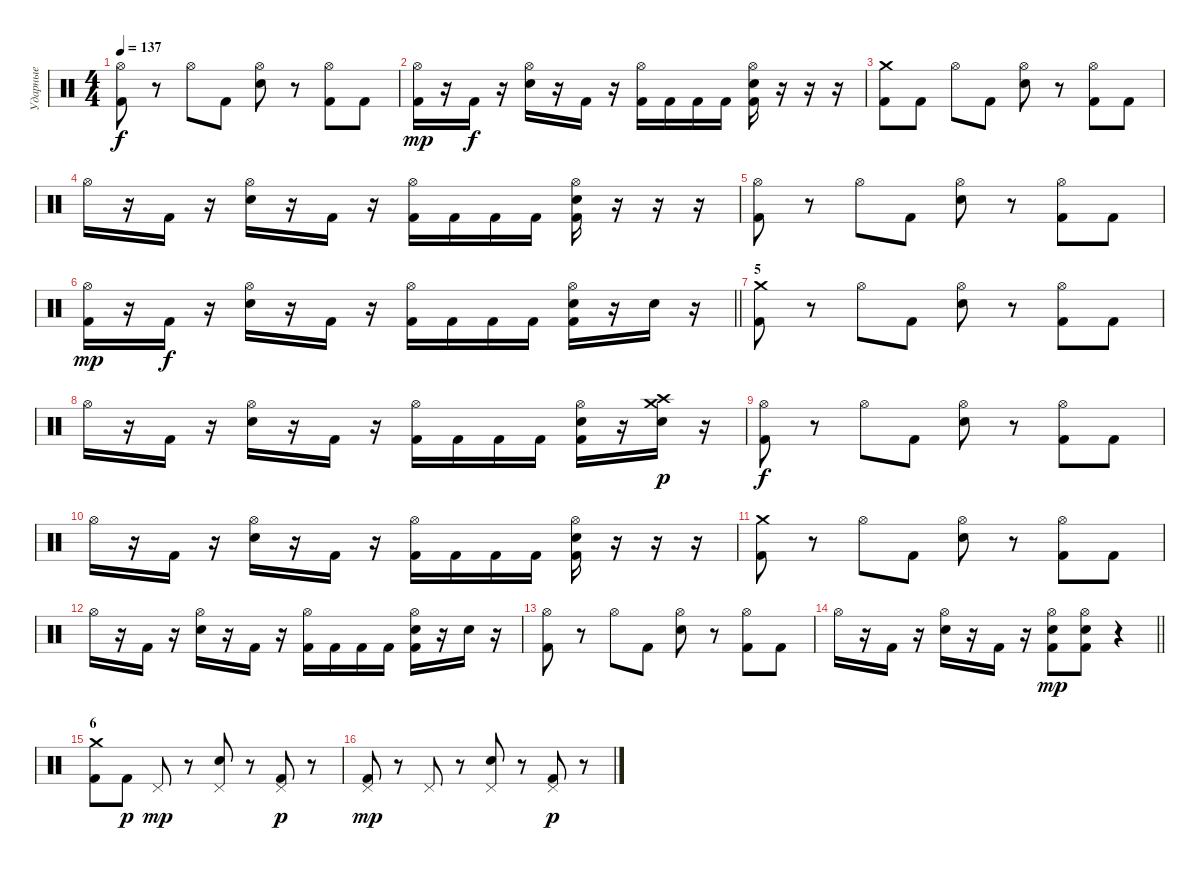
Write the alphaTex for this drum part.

\track ("Ударные" "Ударные") {instrument percussion}
\staff {score}
\articulation defaults
\ts (4 4)
\tempo 137
\clef neutral
\ks c
("Hi-Hat (open)" "Kick (hit) 2").8{dy f} r.8 "Hi-Hat (open)".8 "Kick (hit) 2".8 ("Hi-Hat (open)" "Snare (hit) 2").8 r.8 ("Hi-Hat (open)" "Kick (hit) 2").8 "Kick (hit) 2".8 |
("Hi-Hat (open)" "Kick (hit) 2").16{dy mp} r.16 "Kick (hit) 2".16{dy f} r.16 ("Hi-Hat (open)" "Snare (hit) 2").16 r.16 "Kick (hit) 2".16 r.16 ("Hi-Hat (open)" "Kick (hit) 2").16 "Kick (hit) 2".16 "Kick (hit) 2".16 "Kick (hit) 2".16 ("Hi-Hat (open)" "Snare (hit) 2" "Kick (hit) 2").16 r.16 r.16 r.16 |
("Crash medium (hit)" "Kick (hit) 2").8 "Kick (hit) 2".8 "Hi-Hat (open)".8 "Kick (hit) 2".8 ("Hi-Hat (open)" "Snare (hit) 2").8 r.8 ("Hi-Hat (open)" "Kick (hit) 2").8 "Kick (hit) 2".8 |
"Hi-Hat (open)".16 r.16 "Kick (hit) 2".16 r.16 ("Hi-Hat (open)" "Snare (hit) 2").16 r.16 "Kick (hit) 2".16 r.16 ("Hi-Hat (open)" "Kick (hit) 2").16 "Kick (hit) 2".16 "Kick (hit) 2".16 "Kick (hit) 2".16 ("Hi-Hat (open)" "Snare (hit) 2" "Kick (hit) 2").16 r.16 r.16 r.16 |
("Hi-Hat (open)" "Kick (hit) 2").8 r.8 "Hi-Hat (open)".8 "Kick (hit) 2".8 ("Hi-Hat (open)" "Snare (hit) 2").8 r.8 ("Hi-Hat (open)" "Kick (hit) 2").8 "Kick (hit) 2".8 |
\barLineRight lightlight
("Hi-Hat (open)" "Kick (hit) 2").16{dy mp} r.16 "Kick (hit) 2".16{dy f} r.16 ("Hi-Hat (open)" "Snare (hit) 2").16 r.16 "Kick (hit) 2".16 r.16 ("Hi-Hat (open)" "Kick (hit) 2").16 "Kick (hit) 2".16 "Kick (hit) 2".16 "Kick (hit) 2".16 ("Hi-Hat (open)" "Snare (hit) 2" "Kick (hit) 2").16 r.16 "Snare (hit) 2".16 r.16 |
\section ("" "5")
("Crash medium (hit)" "Kick (hit) 2").8 r.8 "Hi-Hat (open)".8 "Kick (hit) 2".8 ("Hi-Hat (open)" "Snare (hit) 2").8 r.8 ("Hi-Hat (open)" "Kick (hit) 2").8 "Kick (hit) 2".8 |
"Hi-Hat (open)".16 r.16 "Kick (hit) 2".16 r.16 ("Hi-Hat (open)" "Snare (hit) 2").16 r.16 "Kick (hit) 2".16 r.16 ("Hi-Hat (open)" "Kick (hit) 2").16 "Kick (hit) 2".16 "Kick (hit) 2".16 "Kick (hit) 2".16 ("Hi-Hat (open)" "Snare (hit) 2" "Kick (hit) 2").16 r.16 ("Crash medium (hit)" "Crash high (hit)" "Snare (hit) 2").16{dy p} r.16 |
("Hi-Hat (open)" "Kick (hit) 2").8{dy f} r.8 "Hi-Hat (open)".8 "Kick (hit) 2".8 ("Hi-Hat (open)" "Snare (hit) 2").8 r.8 ("Hi-Hat (open)" "Kick (hit) 2").8 "Kick (hit) 2".8 |
"Hi-Hat (open)".16 r.16 "Kick (hit) 2".16 r.16 ("Hi-Hat (open)" "Snare (hit) 2").16 r.16 "Kick (hit) 2".16 r.16 ("Hi-Hat (open)" "Kick (hit) 2").16 "Kick (hit) 2".16 "Kick (hit) 2".16 "Kick (hit) 2".16 ("Hi-Hat (open)" "Snare (hit) 2" "Kick (hit) 2").16 r.16 r.16 r.16 |
("Crash medium (hit)" "Kick (hit) 2").8 r.8 "Hi-Hat (open)".8 "Kick (hit) 2".8 ("Hi-Hat (open)" "Snare (hit) 2").8 r.8 ("Hi-Hat (open)" "Kick (hit) 2").8 "Kick (hit) 2".8 |
"Hi-Hat (open)".16 r.16 "Kick (hit) 2".16 r.16 ("Hi-Hat (open)" "Snare (hit) 2").16 r.16 "Kick (hit) 2".16 r.16 ("Hi-Hat (open)" "Kick (hit) 2").16 "Kick (hit) 2".16 "Kick (hit) 2".16 "Kick (hit) 2".16 ("Hi-Hat (open)" "Snare (hit) 2" "Kick (hit) 2").16 r.16 "Snare (hit) 2".16 r.16 |
("Hi-Hat (open)" "Kick (hit) 2").8 r.8 "Hi-Hat (open)".8 "Kick (hit) 2".8 ("Hi-Hat (open)" "Snare (hit) 2").8 r.8 ("Hi-Hat (open)" "Kick (hit) 2").8 "Kick (hit) 2".8 |
\barLineRight lightlight "Hi-Hat (open)".16
r.16 "Kick (hit) 2".16 r.16 ("Hi-Hat (open)" "Snare (hit) 2").16 r.16 "Kick (hit) 2".16 r.16 ("Snare (hit) 2" "Hi-Hat (open)" "Kick (hit) 2").8{dy mp} ("Snare (hit) 2" "Hi-Hat (open)" "Kick (hit) 2").8 r.4 |
\section ("" "6")
("Crash medium (hit)" "Kick (hit) 2").8 "Kick (hit) 2".8{dy p} "Pedal Hi-Hat (hit)".8{dy mp} r.8 ("Pedal Hi-Hat (hit)" "Snare (hit) 2").8 r.8 ("Pedal Hi-Hat (hit)" "Kick (hit) 2").8{dy p} r.8 |
("Pedal Hi-Hat (hit)" "Kick (hit) 2").8{dy mp} r.8 "Pedal Hi-Hat (hit)".8 r.8 ("Pedal Hi-Hat (hit)" "Snare (hit) 2").8 r.8 ("Pedal Hi-Hat (hit)" "Kick (hit) 2").8{dy p} r.8
